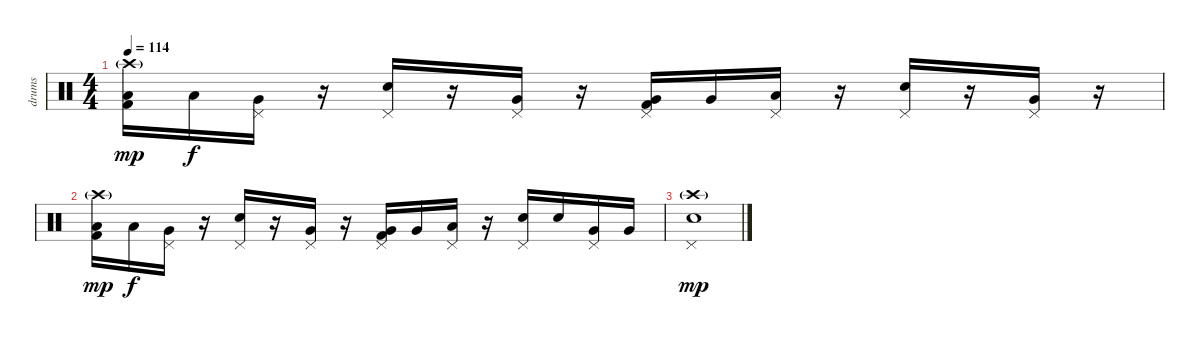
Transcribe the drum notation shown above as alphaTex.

\track ("drums" "drums") {instrument percussion}
\staff {score}
\articulation defaults
\ts (4 4)
\tempo 114
\clef neutral
\ks c
("Kick (hit) 2" "Low Floor Tom (hit)" "Crash high (hit)"{g}).16{dy mp} "Low Floor Tom (hit)".16{dy f} ("Very Low Tom (hit)" "Pedal Hi-Hat (hit)").16 r.16 ("Electric Snare (hit)" "Pedal Hi-Hat (hit)").16 r.16 ("Very Low Tom (hit)" "Pedal Hi-Hat (hit)").16 r.16 ("Kick (hit) 2" "Very Low Tom (hit)" "Pedal Hi-Hat (hit)").16 "Very Low Tom (hit)".16 ("Low Floor Tom (hit)" "Pedal Hi-Hat (hit)").16 r.16 ("Electric Snare (hit)" "Pedal Hi-Hat (hit)").16 r.16 ("Very Low Tom (hit)" "Pedal Hi-Hat (hit)").16 r.16 |
("Kick (hit) 2" "Low Floor Tom (hit)" "Crash high (hit)"{g}).16{dy mp} "Low Floor Tom (hit)".16{dy f} ("Very Low Tom (hit)" "Pedal Hi-Hat (hit)").16 r.16 ("Electric Snare (hit)" "Pedal Hi-Hat (hit)").16 r.16 ("Very Low Tom (hit)" "Pedal Hi-Hat (hit)").16 r.16 ("Kick (hit) 2" "Very Low Tom (hit)" "Pedal Hi-Hat (hit)").16 "Very Low Tom (hit)".16 ("Low Floor Tom (hit)" "Pedal Hi-Hat (hit)").16 r.16 ("Electric Snare (hit)" "Pedal Hi-Hat (hit)").16 "Electric Snare (hit)".16 ("Very Low Tom (hit)" "Pedal Hi-Hat (hit)").16 "Very Low Tom (hit)".16 |
("Electric Snare (hit)" "Crash high (hit)"{g} "Pedal Hi-Hat (hit)").1{dy mp}
